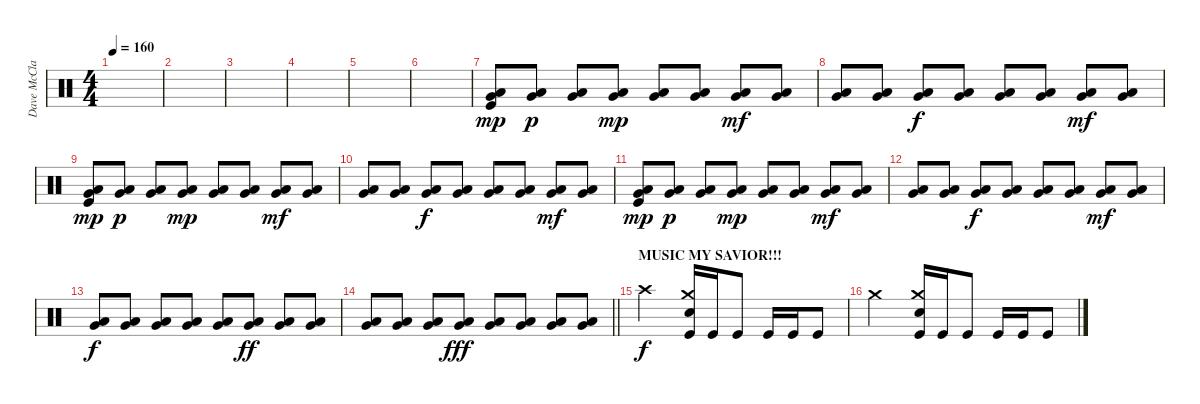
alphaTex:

\track ("Dave McClain" "Dave McCla") {instrument percussion}
\staff {score}
\articulation defaults
\ts (4 4)
\tempo 160
\clef neutral
\ks c
|
|
|
|
|
|
("Very Low Tom (hit)" "Low Floor Tom (hit)" "Kick (hit)").8{dy mp} ("Very Low Tom (hit)" "Low Floor Tom (hit)").8{dy p} ("Very Low Tom (hit)" "Low Floor Tom (hit)").8 ("Very Low Tom (hit)" "Low Floor Tom (hit)").8{dy mp} ("Very Low Tom (hit)" "Low Floor Tom (hit)").8 ("Very Low Tom (hit)" "Low Floor Tom (hit)").8 ("Very Low Tom (hit)" "Low Floor Tom (hit)").8{dy mf} ("Very Low Tom (hit)" "Low Floor Tom (hit)").8 |
("Very Low Tom (hit)" "Low Floor Tom (hit)").8 ("Very Low Tom (hit)" "Low Floor Tom (hit)").8 ("Very Low Tom (hit)" "Low Floor Tom (hit)").8{dy f} ("Very Low Tom (hit)" "Low Floor Tom (hit)").8 ("Very Low Tom (hit)" "Low Floor Tom (hit)").8 ("Very Low Tom (hit)" "Low Floor Tom (hit)").8 ("Very Low Tom (hit)" "Low Floor Tom (hit)").8{dy mf} ("Very Low Tom (hit)" "Low Floor Tom (hit)").8 |
("Very Low Tom (hit)" "Low Floor Tom (hit)" "Kick (hit)").8{dy mp} ("Very Low Tom (hit)" "Low Floor Tom (hit)").8{dy p} ("Very Low Tom (hit)" "Low Floor Tom (hit)").8 ("Very Low Tom (hit)" "Low Floor Tom (hit)").8{dy mp} ("Very Low Tom (hit)" "Low Floor Tom (hit)").8 ("Very Low Tom (hit)" "Low Floor Tom (hit)").8 ("Very Low Tom (hit)" "Low Floor Tom (hit)").8{dy mf} ("Very Low Tom (hit)" "Low Floor Tom (hit)").8 |
("Very Low Tom (hit)" "Low Floor Tom (hit)").8 ("Very Low Tom (hit)" "Low Floor Tom (hit)").8 ("Very Low Tom (hit)" "Low Floor Tom (hit)").8{dy f} ("Very Low Tom (hit)" "Low Floor Tom (hit)").8 ("Very Low Tom (hit)" "Low Floor Tom (hit)").8 ("Very Low Tom (hit)" "Low Floor Tom (hit)").8 ("Very Low Tom (hit)" "Low Floor Tom (hit)").8{dy mf} ("Very Low Tom (hit)" "Low Floor Tom (hit)").8 |
("Very Low Tom (hit)" "Low Floor Tom (hit)" "Kick (hit)").8{dy mp} ("Very Low Tom (hit)" "Low Floor Tom (hit)").8{dy p} ("Very Low Tom (hit)" "Low Floor Tom (hit)").8 ("Very Low Tom (hit)" "Low Floor Tom (hit)").8{dy mp} ("Very Low Tom (hit)" "Low Floor Tom (hit)").8 ("Very Low Tom (hit)" "Low Floor Tom (hit)").8 ("Very Low Tom (hit)" "Low Floor Tom (hit)").8{dy mf} ("Very Low Tom (hit)" "Low Floor Tom (hit)").8 |
("Very Low Tom (hit)" "Low Floor Tom (hit)").8 ("Very Low Tom (hit)" "Low Floor Tom (hit)").8 ("Very Low Tom (hit)" "Low Floor Tom (hit)").8{dy f} ("Very Low Tom (hit)" "Low Floor Tom (hit)").8 ("Very Low Tom (hit)" "Low Floor Tom (hit)").8 ("Very Low Tom (hit)" "Low Floor Tom (hit)").8 ("Very Low Tom (hit)" "Low Floor Tom (hit)").8{dy mf} ("Very Low Tom (hit)" "Low Floor Tom (hit)").8 |
("Very Low Tom (hit)" "Low Floor Tom (hit)").8{dy f} ("Very Low Tom (hit)" "Low Floor Tom (hit)").8 ("Very Low Tom (hit)" "Low Floor Tom (hit)").8 ("Very Low Tom (hit)" "Low Floor Tom (hit)").8 ("Very Low Tom (hit)" "Low Floor Tom (hit)").8 ("Very Low Tom (hit)" "Low Floor Tom (hit)").8{dy ff} ("Very Low Tom (hit)" "Low Floor Tom (hit)").8 ("Very Low Tom (hit)" "Low Floor Tom (hit)").8 |
\barLineRight lightlight
("Very Low Tom (hit)" "Low Floor Tom (hit)").8 ("Very Low Tom (hit)" "Low Floor Tom (hit)").8 ("Very Low Tom (hit)" "Low Floor Tom (hit)").8 ("Very Low Tom (hit)" "Low Floor Tom (hit)").8{dy fff} ("Very Low Tom (hit)" "Low Floor Tom (hit)").8 ("Very Low Tom (hit)" "Low Floor Tom (hit)").8 ("Very Low Tom (hit)" "Low Floor Tom (hit)").8 ("Very Low Tom (hit)" "Low Floor Tom (hit)").8 |
\section ("" "MUSIC MY SAVIOR!!!")
"Crash high (hit)".2{dy f} ("Crash medium (hit)" "Electric Snare (hit)" "Kick (hit)").16 "Kick (hit)".16 "Kick (hit)".8 "Kick (hit)".16 "Kick (hit)".16 "Kick (hit)".8 |
"Crash medium (hit)".2 ("Crash medium (hit)" "Electric Snare (hit)" "Kick (hit)").16 "Kick (hit)".16 "Kick (hit)".8 "Kick (hit)".16 "Kick (hit)".16 "Kick (hit)".8
